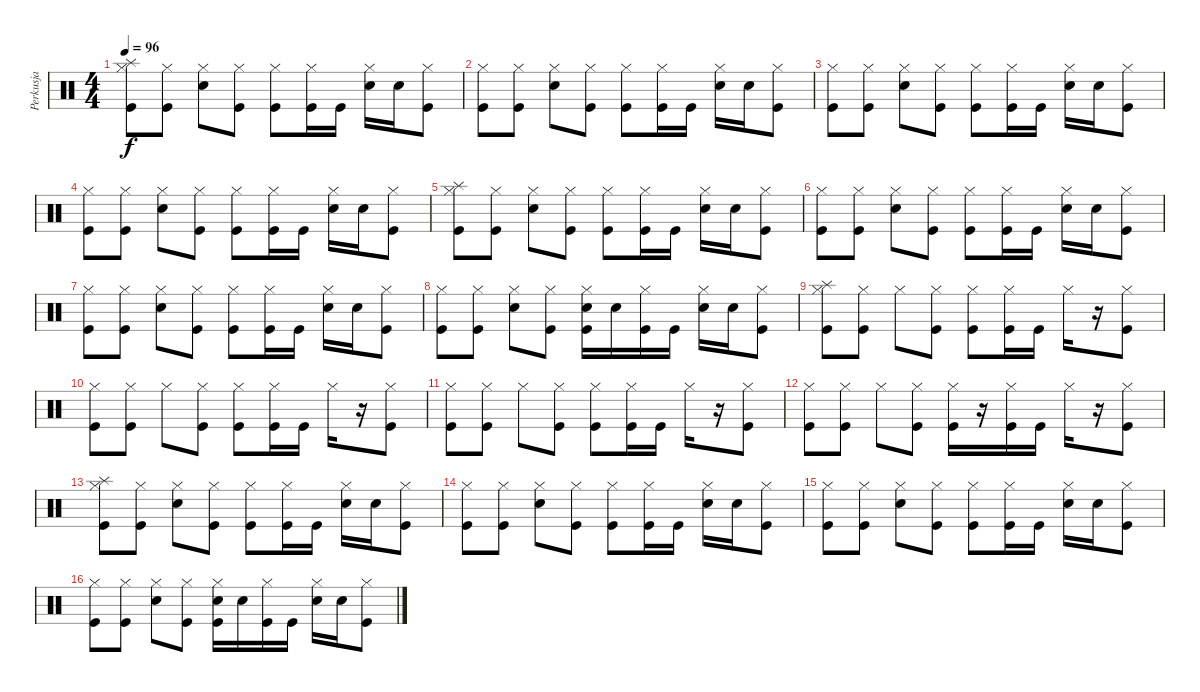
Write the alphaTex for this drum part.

\track ("Perkusja" "Perkusja") {instrument percussion}
\staff {score}
\articulation defaults
\ts (4 4)
\tempo 96
\clef neutral
\ks c
("Splash (hit)" "Hi-Hat (closed)" "Kick (hit)").8{dy f} ("Hi-Hat (closed)" "Kick (hit)").8 ("Electric Snare (hit)" "Hi-Hat (closed)").8 ("Hi-Hat (closed)" "Kick (hit)").8 ("Hi-Hat (closed)" "Kick (hit)").8 ("Hi-Hat (closed)" "Kick (hit)").16 "Kick (hit)".16 ("Electric Snare (hit)" "Hi-Hat (closed)").16 "Electric Snare (hit)".16 ("Hi-Hat (closed)" "Kick (hit)").8 |
("Hi-Hat (closed)" "Kick (hit)").8 ("Hi-Hat (closed)" "Kick (hit)").8 ("Electric Snare (hit)" "Hi-Hat (closed)").8 ("Hi-Hat (closed)" "Kick (hit)").8 ("Hi-Hat (closed)" "Kick (hit)").8 ("Hi-Hat (closed)" "Kick (hit)").16 "Kick (hit)".16 ("Electric Snare (hit)" "Hi-Hat (closed)").16 "Electric Snare (hit)".16 ("Hi-Hat (closed)" "Kick (hit)").8 |
("Hi-Hat (closed)" "Kick (hit)").8 ("Hi-Hat (closed)" "Kick (hit)").8 ("Electric Snare (hit)" "Hi-Hat (closed)").8 ("Hi-Hat (closed)" "Kick (hit)").8 ("Hi-Hat (closed)" "Kick (hit)").8 ("Hi-Hat (closed)" "Kick (hit)").16 "Kick (hit)".16 ("Electric Snare (hit)" "Hi-Hat (closed)").16 "Electric Snare (hit)".16 ("Hi-Hat (closed)" "Kick (hit)").8 |
("Hi-Hat (closed)" "Kick (hit)").8 ("Hi-Hat (closed)" "Kick (hit)").8 ("Electric Snare (hit)" "Hi-Hat (closed)").8 ("Hi-Hat (closed)" "Kick (hit)").8 ("Hi-Hat (closed)" "Kick (hit)").8 ("Hi-Hat (closed)" "Kick (hit)").16 "Kick (hit)".16 ("Electric Snare (hit)" "Hi-Hat (closed)").16 "Electric Snare (hit)".16 ("Hi-Hat (closed)" "Kick (hit)").8 |
("Splash (hit)" "Hi-Hat (closed)" "Kick (hit)").8 ("Hi-Hat (closed)" "Kick (hit)").8 ("Electric Snare (hit)" "Hi-Hat (closed)").8 ("Hi-Hat (closed)" "Kick (hit)").8 ("Hi-Hat (closed)" "Kick (hit)").8 ("Hi-Hat (closed)" "Kick (hit)").16 "Kick (hit)".16 ("Electric Snare (hit)" "Hi-Hat (closed)").16 "Electric Snare (hit)".16 ("Hi-Hat (closed)" "Kick (hit)").8 |
("Hi-Hat (closed)" "Kick (hit)").8 ("Hi-Hat (closed)" "Kick (hit)").8 ("Electric Snare (hit)" "Hi-Hat (closed)").8 ("Hi-Hat (closed)" "Kick (hit)").8 ("Hi-Hat (closed)" "Kick (hit)").8 ("Hi-Hat (closed)" "Kick (hit)").16 "Kick (hit)".16 ("Electric Snare (hit)" "Hi-Hat (closed)").16 "Electric Snare (hit)".16 ("Hi-Hat (closed)" "Kick (hit)").8 |
("Hi-Hat (closed)" "Kick (hit)").8 ("Hi-Hat (closed)" "Kick (hit)").8 ("Electric Snare (hit)" "Hi-Hat (closed)").8 ("Hi-Hat (closed)" "Kick (hit)").8 ("Hi-Hat (closed)" "Kick (hit)").8 ("Hi-Hat (closed)" "Kick (hit)").16 "Kick (hit)".16 ("Electric Snare (hit)" "Hi-Hat (closed)").16 "Electric Snare (hit)".16 ("Hi-Hat (closed)" "Kick (hit)").8 |
("Hi-Hat (closed)" "Kick (hit)").8 ("Hi-Hat (closed)" "Kick (hit)").8 ("Electric Snare (hit)" "Hi-Hat (closed)").8 ("Hi-Hat (closed)" "Kick (hit)").8 ("Electric Snare (hit)" "Hi-Hat (closed)" "Kick (hit)").16 "Electric Snare (hit)".16 ("Hi-Hat (closed)" "Kick (hit)").16 "Kick (hit)".16 ("Electric Snare (hit)" "Hi-Hat (closed)").16 "Electric Snare (hit)".16 ("Hi-Hat (closed)" "Kick (hit)").8 |
("Splash (hit)" "Hi-Hat (closed)" "Kick (hit)").8 ("Hi-Hat (closed)" "Kick (hit)").8 "Hi-Hat (closed)".8 ("Hi-Hat (closed)" "Kick (hit)").8 ("Hi-Hat (closed)" "Kick (hit)").8 ("Hi-Hat (closed)" "Kick (hit)").16 "Kick (hit)".16 "Hi-Hat (closed)".16 r.16 ("Hi-Hat (closed)" "Kick (hit)").8 |
("Hi-Hat (closed)" "Kick (hit)").8 ("Hi-Hat (closed)" "Kick (hit)").8 "Hi-Hat (closed)".8 ("Hi-Hat (closed)" "Kick (hit)").8 ("Hi-Hat (closed)" "Kick (hit)").8 ("Hi-Hat (closed)" "Kick (hit)").16 "Kick (hit)".16 "Hi-Hat (closed)".16 r.16 ("Hi-Hat (closed)" "Kick (hit)").8 |
("Hi-Hat (closed)" "Kick (hit)").8 ("Hi-Hat (closed)" "Kick (hit)").8 "Hi-Hat (closed)".8 ("Hi-Hat (closed)" "Kick (hit)").8 ("Hi-Hat (closed)" "Kick (hit)").8 ("Hi-Hat (closed)" "Kick (hit)").16 "Kick (hit)".16 "Hi-Hat (closed)".16 r.16 ("Hi-Hat (closed)" "Kick (hit)").8 |
("Hi-Hat (closed)" "Kick (hit)").8 ("Hi-Hat (closed)" "Kick (hit)").8 "Hi-Hat (closed)".8 ("Hi-Hat (closed)" "Kick (hit)").8 ("Hi-Hat (closed)" "Kick (hit)").16 r.16 ("Hi-Hat (closed)" "Kick (hit)").16 "Kick (hit)".16 "Hi-Hat (closed)".16 r.16 ("Hi-Hat (closed)" "Kick (hit)").8 |
("Splash (hit)" "Hi-Hat (closed)" "Kick (hit)").8 ("Hi-Hat (closed)" "Kick (hit)").8 ("Electric Snare (hit)" "Hi-Hat (closed)").8 ("Hi-Hat (closed)" "Kick (hit)").8 ("Hi-Hat (closed)" "Kick (hit)").8 ("Hi-Hat (closed)" "Kick (hit)").16 "Kick (hit)".16 ("Electric Snare (hit)" "Hi-Hat (closed)").16 "Electric Snare (hit)".16 ("Hi-Hat (closed)" "Kick (hit)").8 |
("Hi-Hat (closed)" "Kick (hit)").8 ("Hi-Hat (closed)" "Kick (hit)").8 ("Electric Snare (hit)" "Hi-Hat (closed)").8 ("Hi-Hat (closed)" "Kick (hit)").8 ("Hi-Hat (closed)" "Kick (hit)").8 ("Hi-Hat (closed)" "Kick (hit)").16 "Kick (hit)".16 ("Electric Snare (hit)" "Hi-Hat (closed)").16 "Electric Snare (hit)".16 ("Hi-Hat (closed)" "Kick (hit)").8 |
("Hi-Hat (closed)" "Kick (hit)").8 ("Hi-Hat (closed)" "Kick (hit)").8 ("Electric Snare (hit)" "Hi-Hat (closed)").8 ("Hi-Hat (closed)" "Kick (hit)").8 ("Hi-Hat (closed)" "Kick (hit)").8 ("Hi-Hat (closed)" "Kick (hit)").16 "Kick (hit)".16 ("Electric Snare (hit)" "Hi-Hat (closed)").16 "Electric Snare (hit)".16 ("Hi-Hat (closed)" "Kick (hit)").8 |
("Hi-Hat (closed)" "Kick (hit)").8 ("Hi-Hat (closed)" "Kick (hit)").8 ("Electric Snare (hit)" "Hi-Hat (closed)").8 ("Hi-Hat (closed)" "Kick (hit)").8 ("Electric Snare (hit)" "Hi-Hat (closed)" "Kick (hit)").16 "Electric Snare (hit)".16 ("Hi-Hat (closed)" "Kick (hit)").16 "Kick (hit)".16 ("Electric Snare (hit)" "Hi-Hat (closed)").16 "Electric Snare (hit)".16 ("Hi-Hat (closed)" "Kick (hit)").8
